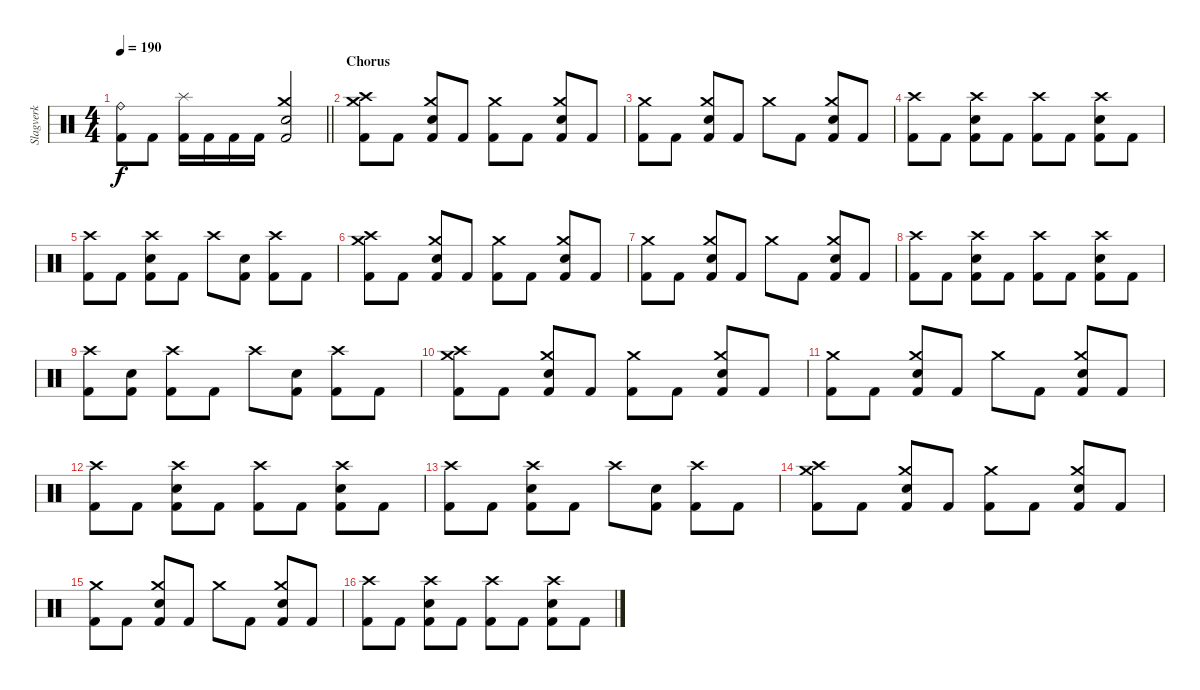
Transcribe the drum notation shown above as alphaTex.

\track ("Slagverk" "Slagverk") {instrument percussion}
\staff {score}
\articulation defaults
\ts (4 4)
\tempo 190
\clef neutral
\barLineRight lightlight
\ks c
("Ride (bell)" "Kick (hit) 2").8{dy f} "Kick (hit) 2".8 ("Splash (hit)" "Kick (hit) 2").16 "Kick (hit) 2".16 "Kick (hit) 2".16 "Kick (hit) 2".16 ("Crash medium (hit)" "Electric Snare (hit)" "Kick (hit) 2").2 |
\section ("" "Chorus")
("Crash medium (hit)" "Crash high (hit)" "Kick (hit) 2").8 "Kick (hit) 2".8 ("Crash medium (hit)" "Electric Snare (hit)" "Kick (hit) 2").8 "Kick (hit) 2".8 ("Crash medium (hit)" "Kick (hit) 2").8 "Kick (hit) 2".8 ("Crash medium (hit)" "Electric Snare (hit)" "Kick (hit) 2").8 "Kick (hit) 2".8 |
("Crash medium (hit)" "Kick (hit) 2").8 "Kick (hit) 2".8 ("Crash medium (hit)" "Electric Snare (hit)" "Kick (hit) 2").8 "Kick (hit) 2".8 "Crash medium (hit)".8 "Kick (hit) 2".8 ("Crash medium (hit)" "Electric Snare (hit)" "Kick (hit) 2").8 "Kick (hit) 2".8 |
("Crash high (hit)" "Kick (hit) 2").8 "Kick (hit) 2".8 ("Crash high (hit)" "Electric Snare (hit)" "Kick (hit) 2").8 "Kick (hit) 2".8 ("Crash high (hit)" "Kick (hit) 2").8 "Kick (hit) 2".8 ("Crash high (hit)" "Electric Snare (hit)" "Kick (hit) 2").8 "Kick (hit) 2".8 |
("Crash high (hit)" "Kick (hit) 2").8 "Kick (hit) 2".8 ("Crash high (hit)" "Electric Snare (hit)" "Kick (hit) 2").8 "Kick (hit) 2".8 "Crash high (hit)".8 ("Electric Snare (hit)" "Kick (hit) 2").8 ("Crash high (hit)" "Kick (hit) 2").8 "Kick (hit) 2".8 |
("Crash medium (hit)" "Crash high (hit)" "Kick (hit) 2").8 "Kick (hit) 2".8 ("Crash medium (hit)" "Electric Snare (hit)" "Kick (hit) 2").8 "Kick (hit) 2".8 ("Crash medium (hit)" "Kick (hit) 2").8 "Kick (hit) 2".8 ("Crash medium (hit)" "Electric Snare (hit)" "Kick (hit) 2").8 "Kick (hit) 2".8 |
("Crash medium (hit)" "Kick (hit) 2").8 "Kick (hit) 2".8 ("Crash medium (hit)" "Electric Snare (hit)" "Kick (hit) 2").8 "Kick (hit) 2".8 "Crash medium (hit)".8 "Kick (hit) 2".8 ("Crash medium (hit)" "Electric Snare (hit)" "Kick (hit) 2").8 "Kick (hit) 2".8 |
("Crash high (hit)" "Kick (hit) 2").8 "Kick (hit) 2".8 ("Crash high (hit)" "Electric Snare (hit)" "Kick (hit) 2").8 "Kick (hit) 2".8 ("Crash high (hit)" "Kick (hit) 2").8 "Kick (hit) 2".8 ("Crash high (hit)" "Electric Snare (hit)" "Kick (hit) 2").8 "Kick (hit) 2".8 |
("Crash high (hit)" "Kick (hit) 2").8 ("Electric Snare (hit)" "Kick (hit) 2").8 ("Crash high (hit)" "Kick (hit) 2").8 "Kick (hit) 2".8 "Crash high (hit)".8 ("Electric Snare (hit)" "Kick (hit) 2").8 ("Crash high (hit)" "Kick (hit) 2").8 "Kick (hit) 2".8 |
("Crash medium (hit)" "Crash high (hit)" "Kick (hit) 2").8 "Kick (hit) 2".8 ("Crash medium (hit)" "Electric Snare (hit)" "Kick (hit) 2").8 "Kick (hit) 2".8 ("Crash medium (hit)" "Kick (hit) 2").8 "Kick (hit) 2".8 ("Crash medium (hit)" "Electric Snare (hit)" "Kick (hit) 2").8 "Kick (hit) 2".8 |
("Crash medium (hit)" "Kick (hit) 2").8 "Kick (hit) 2".8 ("Crash medium (hit)" "Electric Snare (hit)" "Kick (hit) 2").8 "Kick (hit) 2".8 "Crash medium (hit)".8 "Kick (hit) 2".8 ("Crash medium (hit)" "Electric Snare (hit)" "Kick (hit) 2").8 "Kick (hit) 2".8 |
("Crash high (hit)" "Kick (hit) 2").8 "Kick (hit) 2".8 ("Crash high (hit)" "Electric Snare (hit)" "Kick (hit) 2").8 "Kick (hit) 2".8 ("Crash high (hit)" "Kick (hit) 2").8 "Kick (hit) 2".8 ("Crash high (hit)" "Electric Snare (hit)" "Kick (hit) 2").8 "Kick (hit) 2".8 |
("Crash high (hit)" "Kick (hit) 2").8 "Kick (hit) 2".8 ("Crash high (hit)" "Electric Snare (hit)" "Kick (hit) 2").8 "Kick (hit) 2".8 "Crash high (hit)".8 ("Electric Snare (hit)" "Kick (hit) 2").8 ("Crash high (hit)" "Kick (hit) 2").8 "Kick (hit) 2".8 |
("Crash medium (hit)" "Crash high (hit)" "Kick (hit) 2").8 "Kick (hit) 2".8 ("Crash medium (hit)" "Electric Snare (hit)" "Kick (hit) 2").8 "Kick (hit) 2".8 ("Crash medium (hit)" "Kick (hit) 2").8 "Kick (hit) 2".8 ("Crash medium (hit)" "Electric Snare (hit)" "Kick (hit) 2").8 "Kick (hit) 2".8 |
("Crash medium (hit)" "Kick (hit) 2").8 "Kick (hit) 2".8 ("Crash medium (hit)" "Electric Snare (hit)" "Kick (hit) 2").8 "Kick (hit) 2".8 "Crash medium (hit)".8 "Kick (hit) 2".8 ("Crash medium (hit)" "Electric Snare (hit)" "Kick (hit) 2").8 "Kick (hit) 2".8 |
("Crash high (hit)" "Kick (hit) 2").8 "Kick (hit) 2".8 ("Crash high (hit)" "Electric Snare (hit)" "Kick (hit) 2").8 "Kick (hit) 2".8 ("Crash high (hit)" "Kick (hit) 2").8 "Kick (hit) 2".8 ("Crash high (hit)" "Electric Snare (hit)" "Kick (hit) 2").8 "Kick (hit) 2".8
